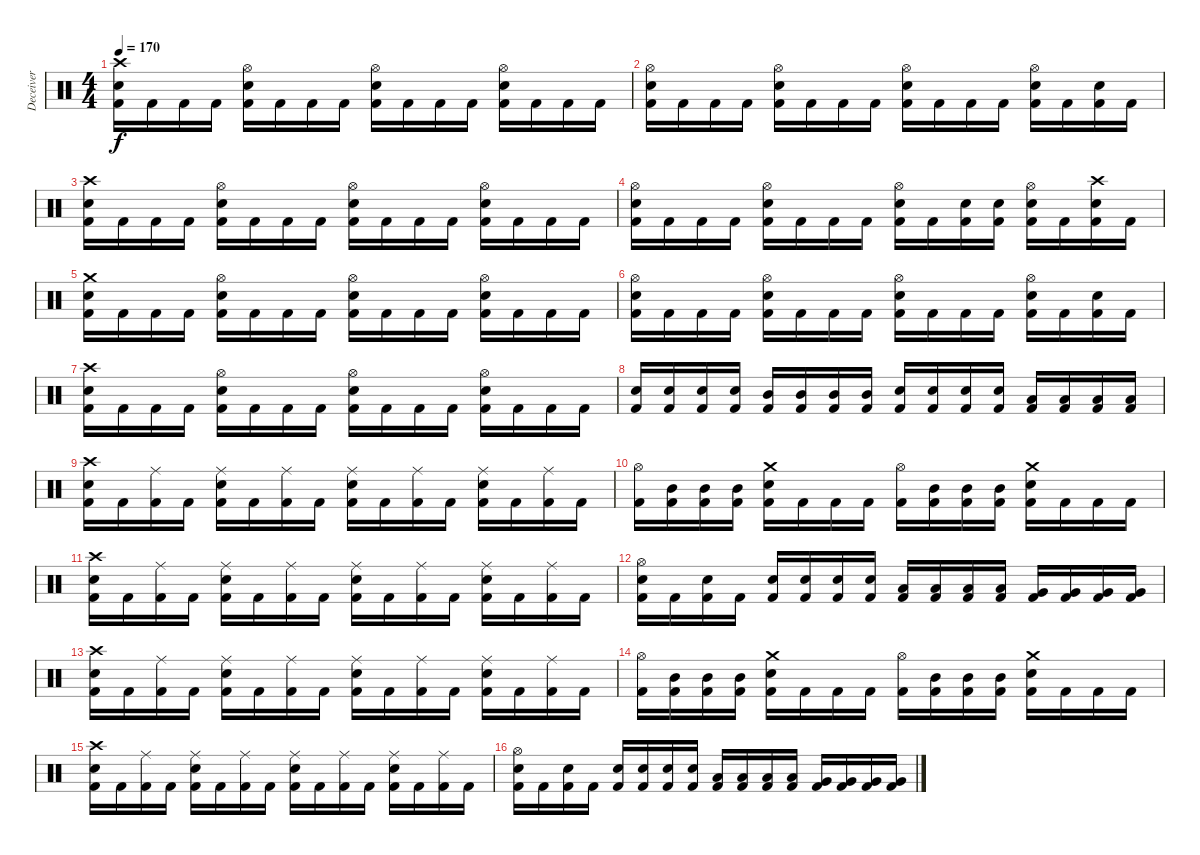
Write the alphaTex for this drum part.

\track ("Deceiver" "Deceiver") {instrument percussion}
\staff {score}
\articulation defaults
\ts (4 4)
\tempo 170
\clef neutral
\ks c
("Crash high (hit)" "Electric Snare (hit)" "Kick (hit) 2").16{dy f} "Kick (hit) 2".16 "Kick (hit) 2".16 "Kick (hit) 2".16 ("Hi-Hat (open)" "Electric Snare (hit)" "Kick (hit) 2").16 "Kick (hit) 2".16 "Kick (hit) 2".16 "Kick (hit) 2".16 ("Hi-Hat (open)" "Electric Snare (hit)" "Kick (hit) 2").16 "Kick (hit) 2".16 "Kick (hit) 2".16 "Kick (hit) 2".16 ("Hi-Hat (open)" "Electric Snare (hit)" "Kick (hit) 2").16 "Kick (hit) 2".16 "Kick (hit) 2".16 "Kick (hit) 2".16 |
("Hi-Hat (open)" "Electric Snare (hit)" "Kick (hit) 2").16 "Kick (hit) 2".16 "Kick (hit) 2".16 "Kick (hit) 2".16 ("Hi-Hat (open)" "Electric Snare (hit)" "Kick (hit) 2").16 "Kick (hit) 2".16 "Kick (hit) 2".16 "Kick (hit) 2".16 ("Hi-Hat (open)" "Electric Snare (hit)" "Kick (hit) 2").16 "Kick (hit) 2".16 "Kick (hit) 2".16 "Kick (hit) 2".16 ("Hi-Hat (open)" "Electric Snare (hit)" "Kick (hit) 2").16 "Kick (hit) 2".16 ("Electric Snare (hit)" "Kick (hit) 2").16 "Kick (hit) 2".16 |
("Crash high (hit)" "Electric Snare (hit)" "Kick (hit) 2").16 "Kick (hit) 2".16 "Kick (hit) 2".16 "Kick (hit) 2".16 ("Hi-Hat (open)" "Electric Snare (hit)" "Kick (hit) 2").16 "Kick (hit) 2".16 "Kick (hit) 2".16 "Kick (hit) 2".16 ("Hi-Hat (open)" "Electric Snare (hit)" "Kick (hit) 2").16 "Kick (hit) 2".16 "Kick (hit) 2".16 "Kick (hit) 2".16 ("Hi-Hat (open)" "Electric Snare (hit)" "Kick (hit) 2").16 "Kick (hit) 2".16 "Kick (hit) 2".16 "Kick (hit) 2".16 |
("Hi-Hat (open)" "Electric Snare (hit)" "Kick (hit) 2").16 "Kick (hit) 2".16 "Kick (hit) 2".16 "Kick (hit) 2".16 ("Hi-Hat (open)" "Electric Snare (hit)" "Kick (hit) 2").16 "Kick (hit) 2".16 "Kick (hit) 2".16 "Kick (hit) 2".16 ("Hi-Hat (open)" "Electric Snare (hit)" "Kick (hit) 2").16 "Kick (hit) 2".16 ("Electric Snare (hit)" "Kick (hit) 2").16 ("Electric Snare (hit)" "Kick (hit) 2").16 ("Hi-Hat (open)" "Electric Snare (hit)" "Kick (hit) 2").16 "Kick (hit) 2".16 ("Crash high (hit)" "Electric Snare (hit)" "Kick (hit) 2").16 "Kick (hit) 2".16 |
("Crash medium (hit)" "Electric Snare (hit)" "Kick (hit) 2").16 "Kick (hit) 2".16 "Kick (hit) 2".16 "Kick (hit) 2".16 ("Hi-Hat (open)" "Electric Snare (hit)" "Kick (hit) 2").16 "Kick (hit) 2".16 "Kick (hit) 2".16 "Kick (hit) 2".16 ("Hi-Hat (open)" "Electric Snare (hit)" "Kick (hit) 2").16 "Kick (hit) 2".16 "Kick (hit) 2".16 "Kick (hit) 2".16 ("Hi-Hat (open)" "Electric Snare (hit)" "Kick (hit) 2").16 "Kick (hit) 2".16 "Kick (hit) 2".16 "Kick (hit) 2".16 |
("Hi-Hat (open)" "Electric Snare (hit)" "Kick (hit) 2").16 "Kick (hit) 2".16 "Kick (hit) 2".16 "Kick (hit) 2".16 ("Hi-Hat (open)" "Electric Snare (hit)" "Kick (hit) 2").16 "Kick (hit) 2".16 "Kick (hit) 2".16 "Kick (hit) 2".16 ("Hi-Hat (open)" "Electric Snare (hit)" "Kick (hit) 2").16 "Kick (hit) 2".16 "Kick (hit) 2".16 "Kick (hit) 2".16 ("Hi-Hat (open)" "Electric Snare (hit)" "Kick (hit) 2").16 "Kick (hit) 2".16 ("Electric Snare (hit)" "Kick (hit) 2").16 "Kick (hit) 2".16 |
("Crash high (hit)" "Electric Snare (hit)" "Kick (hit) 2").16 "Kick (hit) 2".16 "Kick (hit) 2".16 "Kick (hit) 2".16 ("Hi-Hat (open)" "Electric Snare (hit)" "Kick (hit) 2").16 "Kick (hit) 2".16 "Kick (hit) 2".16 "Kick (hit) 2".16 ("Hi-Hat (open)" "Electric Snare (hit)" "Kick (hit) 2").16 "Kick (hit) 2".16 "Kick (hit) 2".16 "Kick (hit) 2".16 ("Hi-Hat (open)" "Electric Snare (hit)" "Kick (hit) 2").16 "Kick (hit) 2".16 "Kick (hit) 2".16 "Kick (hit) 2".16 |
("Electric Snare (hit)" "Kick (hit) 2").16 ("Electric Snare (hit)" "Kick (hit) 2").16 ("Electric Snare (hit)" "Kick (hit) 2").16 ("Electric Snare (hit)" "Kick (hit) 2").16 ("Mid Tom (hit)" "Kick (hit) 2").16 ("Mid Tom (hit)" "Kick (hit) 2").16 ("Mid Tom (hit)" "Kick (hit) 2").16 ("Mid Tom (hit)" "Kick (hit) 2").16 ("Electric Snare (hit)" "Kick (hit) 2").16 ("Electric Snare (hit)" "Kick (hit) 2").16 ("Electric Snare (hit)" "Kick (hit) 2").16 ("Electric Snare (hit)" "Kick (hit) 2").16 ("Low Tom (hit)" "Kick (hit) 2").16 ("Low Tom (hit)" "Kick (hit) 2").16 ("Low Tom (hit)" "Kick (hit) 2").16 ("Low Tom (hit)" "Kick (hit) 2").16 |
("Crash high (hit)" "Electric Snare (hit)" "Kick (hit) 2").16 "Kick (hit) 2".16 ("Ride (middle)" "Kick (hit) 2").16 "Kick (hit) 2".16 ("Ride (middle)" "Electric Snare (hit)" "Kick (hit) 2").16 "Kick (hit) 2".16 ("Ride (middle)" "Kick (hit) 2").16 "Kick (hit) 2".16 ("Ride (middle)" "Electric Snare (hit)" "Kick (hit) 2").16 "Kick (hit) 2".16 ("Ride (middle)" "Kick (hit) 2").16 "Kick (hit) 2".16 ("Ride (middle)" "Electric Snare (hit)" "Kick (hit) 2").16 "Kick (hit) 2".16 ("Ride (middle)" "Kick (hit) 2").16 "Kick (hit) 2".16 |
("Hi-Hat (open)" "Kick (hit) 2").16 ("Mid Tom (hit)" "Kick (hit) 2").16 ("Mid Tom (hit)" "Kick (hit) 2").16 ("Mid Tom (hit)" "Kick (hit) 2").16 ("Crash medium (hit)" "Electric Snare (hit)" "Kick (hit) 2").16 "Kick (hit) 2".16 "Kick (hit) 2".16 "Kick (hit) 2".16 ("Hi-Hat (open)" "Kick (hit) 2").16 ("Mid Tom (hit)" "Kick (hit) 2").16 ("Mid Tom (hit)" "Kick (hit) 2").16 ("Mid Tom (hit)" "Kick (hit) 2").16 ("Crash medium (hit)" "Electric Snare (hit)" "Kick (hit) 2").16 "Kick (hit) 2".16 "Kick (hit) 2".16 "Kick (hit) 2".16 |
("Crash high (hit)" "Electric Snare (hit)" "Kick (hit) 2").16 "Kick (hit) 2".16 ("Ride (middle)" "Kick (hit) 2").16 "Kick (hit) 2".16 ("Ride (middle)" "Electric Snare (hit)" "Kick (hit) 2").16 "Kick (hit) 2".16 ("Ride (middle)" "Kick (hit) 2").16 "Kick (hit) 2".16 ("Ride (middle)" "Electric Snare (hit)" "Kick (hit) 2").16 "Kick (hit) 2".16 ("Ride (middle)" "Kick (hit) 2").16 "Kick (hit) 2".16 ("Ride (middle)" "Electric Snare (hit)" "Kick (hit) 2").16 "Kick (hit) 2".16 ("Ride (middle)" "Kick (hit) 2").16 "Kick (hit) 2".16 |
("Hi-Hat (open)" "Electric Snare (hit)" "Kick (hit) 2").16 "Kick (hit) 2".16 ("Electric Snare (hit)" "Kick (hit) 2").16 "Kick (hit) 2".16 ("Electric Snare (hit)" "Kick (hit) 2").16 ("Electric Snare (hit)" "Kick (hit) 2").16 ("Electric Snare (hit)" "Kick (hit) 2").16 ("Electric Snare (hit)" "Kick (hit) 2").16 ("Low Tom (hit)" "Kick (hit) 2").16 ("Low Tom (hit)" "Kick (hit) 2").16 ("Low Tom (hit)" "Kick (hit) 2").16 ("Low Tom (hit)" "Kick (hit) 2").16 ("Very Low Tom (hit)" "Kick (hit) 2").16 ("Very Low Tom (hit)" "Kick (hit) 2").16 ("Very Low Tom (hit)" "Kick (hit) 2").16 ("Very Low Tom (hit)" "Kick (hit) 2").16 |
("Crash high (hit)" "Electric Snare (hit)" "Kick (hit) 2").16 "Kick (hit) 2".16 ("Ride (middle)" "Kick (hit) 2").16 "Kick (hit) 2".16 ("Ride (middle)" "Electric Snare (hit)" "Kick (hit) 2").16 "Kick (hit) 2".16 ("Ride (middle)" "Kick (hit) 2").16 "Kick (hit) 2".16 ("Ride (middle)" "Electric Snare (hit)" "Kick (hit) 2").16 "Kick (hit) 2".16 ("Ride (middle)" "Kick (hit) 2").16 "Kick (hit) 2".16 ("Ride (middle)" "Electric Snare (hit)" "Kick (hit) 2").16 "Kick (hit) 2".16 ("Ride (middle)" "Kick (hit) 2").16 "Kick (hit) 2".16 |
("Hi-Hat (open)" "Kick (hit) 2").16 ("Mid Tom (hit)" "Kick (hit) 2").16 ("Mid Tom (hit)" "Kick (hit) 2").16 ("Mid Tom (hit)" "Kick (hit) 2").16 ("Crash medium (hit)" "Electric Snare (hit)" "Kick (hit) 2").16 "Kick (hit) 2".16 "Kick (hit) 2".16 "Kick (hit) 2".16 ("Hi-Hat (open)" "Kick (hit) 2").16 ("Mid Tom (hit)" "Kick (hit) 2").16 ("Mid Tom (hit)" "Kick (hit) 2").16 ("Mid Tom (hit)" "Kick (hit) 2").16 ("Crash medium (hit)" "Electric Snare (hit)" "Kick (hit) 2").16 "Kick (hit) 2".16 "Kick (hit) 2".16 "Kick (hit) 2".16 |
("Crash high (hit)" "Electric Snare (hit)" "Kick (hit) 2").16 "Kick (hit) 2".16 ("Ride (middle)" "Kick (hit) 2").16 "Kick (hit) 2".16 ("Ride (middle)" "Electric Snare (hit)" "Kick (hit) 2").16 "Kick (hit) 2".16 ("Ride (middle)" "Kick (hit) 2").16 "Kick (hit) 2".16 ("Ride (middle)" "Electric Snare (hit)" "Kick (hit) 2").16 "Kick (hit) 2".16 ("Ride (middle)" "Kick (hit) 2").16 "Kick (hit) 2".16 ("Ride (middle)" "Electric Snare (hit)" "Kick (hit) 2").16 "Kick (hit) 2".16 ("Ride (middle)" "Kick (hit) 2").16 "Kick (hit) 2".16 |
("Hi-Hat (open)" "Electric Snare (hit)" "Kick (hit) 2").16 "Kick (hit) 2".16 ("Electric Snare (hit)" "Kick (hit) 2").16 "Kick (hit) 2".16 ("Electric Snare (hit)" "Kick (hit) 2").16 ("Electric Snare (hit)" "Kick (hit) 2").16 ("Electric Snare (hit)" "Kick (hit) 2").16 ("Electric Snare (hit)" "Kick (hit) 2").16 ("Low Tom (hit)" "Kick (hit) 2").16 ("Low Tom (hit)" "Kick (hit) 2").16 ("Low Tom (hit)" "Kick (hit) 2").16 ("Low Tom (hit)" "Kick (hit) 2").16 ("Very Low Tom (hit)" "Kick (hit) 2").16 ("Very Low Tom (hit)" "Kick (hit) 2").16 ("Very Low Tom (hit)" "Kick (hit) 2").16 ("Very Low Tom (hit)" "Kick (hit) 2").16
